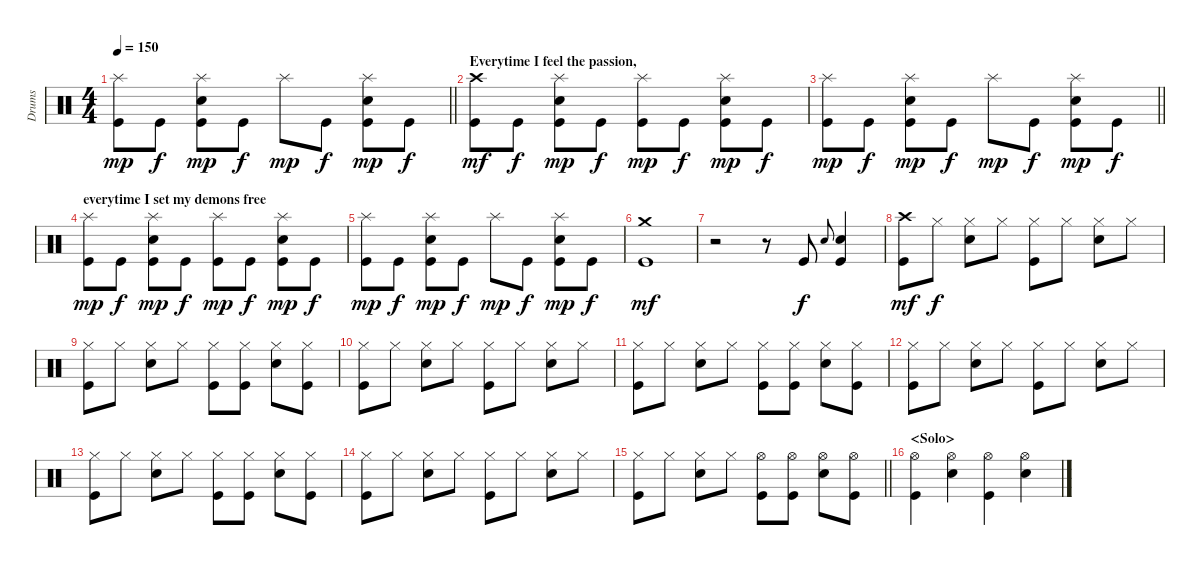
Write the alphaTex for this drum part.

\track ("Drums" "Drums") {instrument percussion}
\staff {score}
\articulation defaults
\ts (4 4)
\tempo 150
\clef neutral
\barLineRight lightlight
\ks c
("Splash (hit)" "Kick (hit)").8{dy mp} "Kick (hit)".8{dy f} ("Splash (hit)" "Snare (hit) 2" "Kick (hit)").8{dy mp} "Kick (hit)".8{dy f} "Splash (hit)".8{dy mp} "Kick (hit)".8{dy f} ("Splash (hit)" "Snare (hit) 2" "Kick (hit)").8{dy mp} "Kick (hit)".8{dy f} |
\section ("" "Everytime I feel the passion,")
("Crash high (hit)" "Kick (hit)").8{dy mf} "Kick (hit)".8{dy f} ("Splash (hit)" "Snare (hit) 2" "Kick (hit)").8{dy mp} "Kick (hit)".8{dy f} ("Splash (hit)" "Kick (hit)").8{dy mp} "Kick (hit)".8{dy f} ("Splash (hit)" "Snare (hit) 2" "Kick (hit)").8{dy mp} "Kick (hit)".8{dy f} |
\barLineRight lightlight
("Splash (hit)" "Kick (hit)").8{dy mp} "Kick (hit)".8{dy f} ("Splash (hit)" "Snare (hit) 2" "Kick (hit)").8{dy mp} "Kick (hit)".8{dy f} "Splash (hit)".8{dy mp} "Kick (hit)".8{dy f} ("Splash (hit)" "Snare (hit) 2" "Kick (hit)").8{dy mp} "Kick (hit)".8{dy f} |
\section ("" "everytime I set my demons free")
("Splash (hit)" "Kick (hit)").8{dy mp} "Kick (hit)".8{dy f} ("Splash (hit)" "Snare (hit) 2" "Kick (hit)").8{dy mp} "Kick (hit)".8{dy f} ("Splash (hit)" "Kick (hit)").8{dy mp} "Kick (hit)".8{dy f} ("Splash (hit)" "Snare (hit) 2" "Kick (hit)").8{dy mp} "Kick (hit)".8{dy f} |
("Splash (hit)" "Kick (hit)").8{dy mp} "Kick (hit)".8{dy f} ("Splash (hit)" "Snare (hit) 2" "Kick (hit)").8{dy mp} "Kick (hit)".8{dy f} "Splash (hit)".8{dy mp} "Kick (hit)".8{dy f} ("Splash (hit)" "Snare (hit) 2" "Kick (hit)").8{dy mp} "Kick (hit)".8{dy f} |
("Crash medium (hit)" "Kick (hit)").1{dy mf} |
r.2 r.8 "Kick (hit)".8{dy f} "Snare (hit) 2".8{gr onbeat} ("Snare (hit) 2" "Kick (hit)").4 |
("Crash high (hit)" "Kick (hit)").8{dy mf} "Hi-Hat (closed)".8{dy f} ("Hi-Hat (closed)" "Snare (hit) 2").8 "Hi-Hat (closed)".8 ("Hi-Hat (closed)" "Kick (hit)").8 "Hi-Hat (closed)".8 ("Hi-Hat (closed)" "Snare (hit) 2").8 "Hi-Hat (closed)".8 |
("Hi-Hat (closed)" "Kick (hit)").8 "Hi-Hat (closed)".8 ("Hi-Hat (closed)" "Snare (hit) 2").8 "Hi-Hat (closed)".8 ("Hi-Hat (closed)" "Kick (hit)").8 ("Hi-Hat (closed)" "Kick (hit)").8 ("Hi-Hat (closed)" "Snare (hit) 2").8 ("Hi-Hat (closed)" "Kick (hit)").8 |
("Hi-Hat (closed)" "Kick (hit)").8 "Hi-Hat (closed)".8 ("Hi-Hat (closed)" "Snare (hit) 2").8 "Hi-Hat (closed)".8 ("Hi-Hat (closed)" "Kick (hit)").8 "Hi-Hat (closed)".8 ("Hi-Hat (closed)" "Snare (hit) 2").8 "Hi-Hat (closed)".8 |
("Hi-Hat (closed)" "Kick (hit)").8 "Hi-Hat (closed)".8 ("Hi-Hat (closed)" "Snare (hit) 2").8 "Hi-Hat (closed)".8 ("Hi-Hat (closed)" "Kick (hit)").8 ("Hi-Hat (closed)" "Kick (hit)").8 ("Hi-Hat (closed)" "Snare (hit) 2").8 ("Hi-Hat (closed)" "Kick (hit)").8 |
("Hi-Hat (closed)" "Kick (hit)").8 "Hi-Hat (closed)".8 ("Hi-Hat (closed)" "Snare (hit) 2").8 "Hi-Hat (closed)".8 ("Hi-Hat (closed)" "Kick (hit)").8 "Hi-Hat (closed)".8 ("Hi-Hat (closed)" "Snare (hit) 2").8 "Hi-Hat (closed)".8 |
("Hi-Hat (closed)" "Kick (hit)").8 "Hi-Hat (closed)".8 ("Hi-Hat (closed)" "Snare (hit) 2").8 "Hi-Hat (closed)".8 ("Hi-Hat (closed)" "Kick (hit)").8 ("Hi-Hat (closed)" "Kick (hit)").8 ("Hi-Hat (closed)" "Snare (hit) 2").8 ("Hi-Hat (closed)" "Kick (hit)").8 |
("Hi-Hat (closed)" "Kick (hit)").8 "Hi-Hat (closed)".8 ("Hi-Hat (closed)" "Snare (hit) 2").8 "Hi-Hat (closed)".8 ("Hi-Hat (closed)" "Kick (hit)").8 "Hi-Hat (closed)".8 ("Hi-Hat (closed)" "Snare (hit) 2").8 "Hi-Hat (closed)".8 |
\barLineRight lightlight
("Hi-Hat (closed)" "Kick (hit)").8 "Hi-Hat (closed)".8 ("Hi-Hat (closed)" "Snare (hit) 2").8 "Hi-Hat (closed)".8 ("Hi-Hat (open)" "Kick (hit)").8 ("Hi-Hat (open)" "Kick (hit)").8 ("Hi-Hat (open)" "Snare (hit) 2").8 ("Hi-Hat (open)" "Kick (hit)").8 |
\section ("" "<Solo>")
("Hi-Hat (open)" "Kick (hit)").4 ("Hi-Hat (open)" "Snare (hit) 2").4 ("Hi-Hat (open)" "Kick (hit)").4 ("Hi-Hat (open)" "Snare (hit) 2").4
